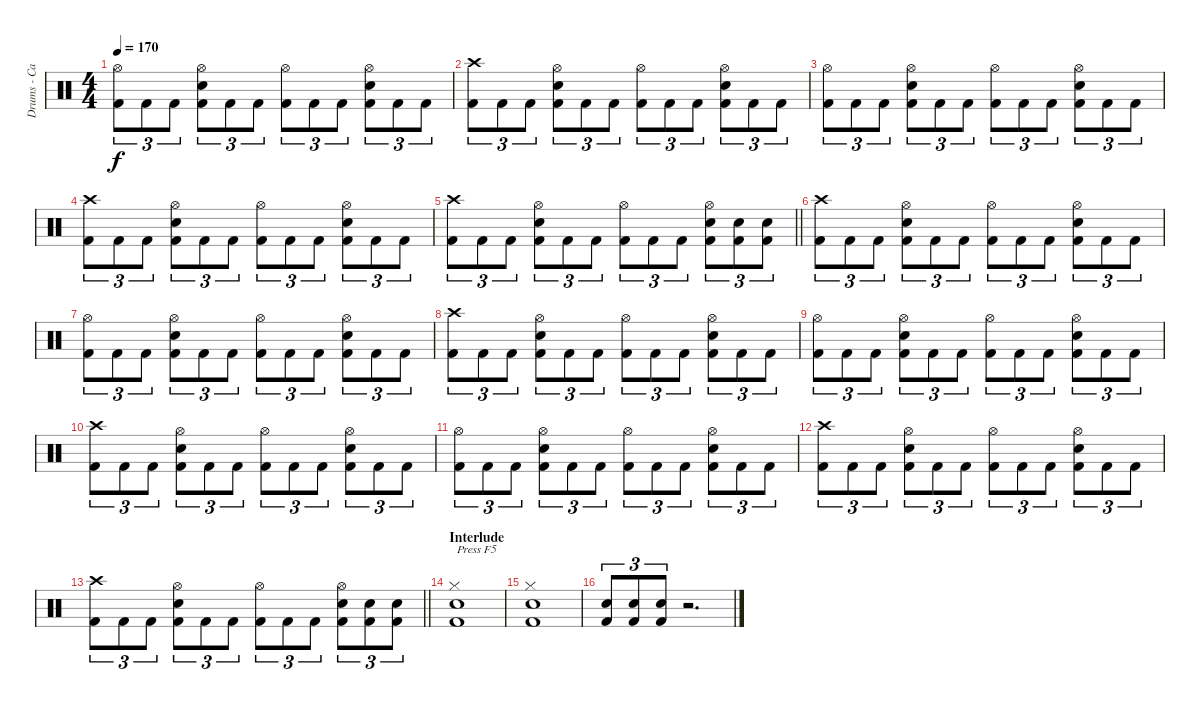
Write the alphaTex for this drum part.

\track ("Drums - Casey Grillo" "Drums - Ca") {instrument percussion}
\staff {score}
\articulation defaults
\ts (4 4)
\tempo 170
\clef neutral
\ks c
("Hi-Hat (open)" "Kick (hit) 2").8{tu (3 2) dy f} "Kick (hit) 2".8{tu (3 2)} "Kick (hit) 2".8{tu (3 2)} ("Hi-Hat (open)" "Snare (hit) 2" "Kick (hit) 2").8{tu (3 2)} "Kick (hit) 2".8{tu (3 2)} "Kick (hit) 2".8{tu (3 2)} ("Hi-Hat (open)" "Kick (hit) 2").8{tu (3 2)} "Kick (hit) 2".8{tu (3 2)} "Kick (hit) 2".8{tu (3 2)} ("Hi-Hat (open)" "Snare (hit) 2" "Kick (hit) 2").8{tu (3 2)} "Kick (hit) 2".8{tu (3 2)} "Kick (hit) 2".8{tu (3 2)} |
("Crash high (hit)" "Kick (hit) 2").8{tu (3 2)} "Kick (hit) 2".8{tu (3 2)} "Kick (hit) 2".8{tu (3 2)} ("Hi-Hat (open)" "Snare (hit) 2" "Kick (hit) 2").8{tu (3 2)} "Kick (hit) 2".8{tu (3 2)} "Kick (hit) 2".8{tu (3 2)} ("Hi-Hat (open)" "Kick (hit) 2").8{tu (3 2)} "Kick (hit) 2".8{tu (3 2)} "Kick (hit) 2".8{tu (3 2)} ("Hi-Hat (open)" "Snare (hit) 2" "Kick (hit) 2").8{tu (3 2)} "Kick (hit) 2".8{tu (3 2)} "Kick (hit) 2".8{tu (3 2)} |
("Hi-Hat (open)" "Kick (hit) 2").8{tu (3 2)} "Kick (hit) 2".8{tu (3 2)} "Kick (hit) 2".8{tu (3 2)} ("Hi-Hat (open)" "Snare (hit) 2" "Kick (hit) 2").8{tu (3 2)} "Kick (hit) 2".8{tu (3 2)} "Kick (hit) 2".8{tu (3 2)} ("Hi-Hat (open)" "Kick (hit) 2").8{tu (3 2)} "Kick (hit) 2".8{tu (3 2)} "Kick (hit) 2".8{tu (3 2)} ("Hi-Hat (open)" "Snare (hit) 2" "Kick (hit) 2").8{tu (3 2)} "Kick (hit) 2".8{tu (3 2)} "Kick (hit) 2".8{tu (3 2)} |
("Crash high (hit)" "Kick (hit) 2").8{tu (3 2)} "Kick (hit) 2".8{tu (3 2)} "Kick (hit) 2".8{tu (3 2)} ("Hi-Hat (open)" "Snare (hit) 2" "Kick (hit) 2").8{tu (3 2)} "Kick (hit) 2".8{tu (3 2)} "Kick (hit) 2".8{tu (3 2)} ("Hi-Hat (open)" "Kick (hit) 2").8{tu (3 2)} "Kick (hit) 2".8{tu (3 2)} "Kick (hit) 2".8{tu (3 2)} ("Hi-Hat (open)" "Snare (hit) 2" "Kick (hit) 2").8{tu (3 2)} "Kick (hit) 2".8{tu (3 2)} "Kick (hit) 2".8{tu (3 2)} |
\barLineRight lightlight
("Crash high (hit)" "Kick (hit) 2").8{tu (3 2)} "Kick (hit) 2".8{tu (3 2)} "Kick (hit) 2".8{tu (3 2)} ("Hi-Hat (open)" "Snare (hit) 2" "Kick (hit) 2").8{tu (3 2)} "Kick (hit) 2".8{tu (3 2)} "Kick (hit) 2".8{tu (3 2)} ("Hi-Hat (open)" "Kick (hit) 2").8{tu (3 2)} "Kick (hit) 2".8{tu (3 2)} "Kick (hit) 2".8{tu (3 2)} ("Hi-Hat (open)" "Snare (hit) 2" "Kick (hit) 2").8{tu (3 2)} ("Snare (hit) 2" "Kick (hit) 2").8{tu (3 2)} ("Snare (hit) 2" "Kick (hit) 2").8{tu (3 2)} |
("Crash high (hit)" "Kick (hit) 2").8{tu (3 2)} "Kick (hit) 2".8{tu (3 2)} "Kick (hit) 2".8{tu (3 2)} ("Hi-Hat (open)" "Snare (hit) 2" "Kick (hit) 2").8{tu (3 2)} "Kick (hit) 2".8{tu (3 2)} "Kick (hit) 2".8{tu (3 2)} ("Hi-Hat (open)" "Kick (hit) 2").8{tu (3 2)} "Kick (hit) 2".8{tu (3 2)} "Kick (hit) 2".8{tu (3 2)} ("Hi-Hat (open)" "Snare (hit) 2" "Kick (hit) 2").8{tu (3 2)} "Kick (hit) 2".8{tu (3 2)} "Kick (hit) 2".8{tu (3 2)} |
("Hi-Hat (open)" "Kick (hit) 2").8{tu (3 2)} "Kick (hit) 2".8{tu (3 2)} "Kick (hit) 2".8{tu (3 2)} ("Hi-Hat (open)" "Snare (hit) 2" "Kick (hit) 2").8{tu (3 2)} "Kick (hit) 2".8{tu (3 2)} "Kick (hit) 2".8{tu (3 2)} ("Hi-Hat (open)" "Kick (hit) 2").8{tu (3 2)} "Kick (hit) 2".8{tu (3 2)} "Kick (hit) 2".8{tu (3 2)} ("Hi-Hat (open)" "Snare (hit) 2" "Kick (hit) 2").8{tu (3 2)} "Kick (hit) 2".8{tu (3 2)} "Kick (hit) 2".8{tu (3 2)} |
("Crash high (hit)" "Kick (hit) 2").8{tu (3 2)} "Kick (hit) 2".8{tu (3 2)} "Kick (hit) 2".8{tu (3 2)} ("Hi-Hat (open)" "Snare (hit) 2" "Kick (hit) 2").8{tu (3 2)} "Kick (hit) 2".8{tu (3 2)} "Kick (hit) 2".8{tu (3 2)} ("Hi-Hat (open)" "Kick (hit) 2").8{tu (3 2)} "Kick (hit) 2".8{tu (3 2)} "Kick (hit) 2".8{tu (3 2)} ("Hi-Hat (open)" "Snare (hit) 2" "Kick (hit) 2").8{tu (3 2)} "Kick (hit) 2".8{tu (3 2)} "Kick (hit) 2".8{tu (3 2)} |
("Hi-Hat (open)" "Kick (hit) 2").8{tu (3 2)} "Kick (hit) 2".8{tu (3 2)} "Kick (hit) 2".8{tu (3 2)} ("Hi-Hat (open)" "Snare (hit) 2" "Kick (hit) 2").8{tu (3 2)} "Kick (hit) 2".8{tu (3 2)} "Kick (hit) 2".8{tu (3 2)} ("Hi-Hat (open)" "Kick (hit) 2").8{tu (3 2)} "Kick (hit) 2".8{tu (3 2)} "Kick (hit) 2".8{tu (3 2)} ("Hi-Hat (open)" "Snare (hit) 2" "Kick (hit) 2").8{tu (3 2)} "Kick (hit) 2".8{tu (3 2)} "Kick (hit) 2".8{tu (3 2)} |
("Crash high (hit)" "Kick (hit) 2").8{tu (3 2)} "Kick (hit) 2".8{tu (3 2)} "Kick (hit) 2".8{tu (3 2)} ("Hi-Hat (open)" "Snare (hit) 2" "Kick (hit) 2").8{tu (3 2)} "Kick (hit) 2".8{tu (3 2)} "Kick (hit) 2".8{tu (3 2)} ("Hi-Hat (open)" "Kick (hit) 2").8{tu (3 2)} "Kick (hit) 2".8{tu (3 2)} "Kick (hit) 2".8{tu (3 2)} ("Hi-Hat (open)" "Snare (hit) 2" "Kick (hit) 2").8{tu (3 2)} "Kick (hit) 2".8{tu (3 2)} "Kick (hit) 2".8{tu (3 2)} |
("Hi-Hat (open)" "Kick (hit) 2").8{tu (3 2)} "Kick (hit) 2".8{tu (3 2)} "Kick (hit) 2".8{tu (3 2)} ("Hi-Hat (open)" "Snare (hit) 2" "Kick (hit) 2").8{tu (3 2)} "Kick (hit) 2".8{tu (3 2)} "Kick (hit) 2".8{tu (3 2)} ("Hi-Hat (open)" "Kick (hit) 2").8{tu (3 2)} "Kick (hit) 2".8{tu (3 2)} "Kick (hit) 2".8{tu (3 2)} ("Hi-Hat (open)" "Snare (hit) 2" "Kick (hit) 2").8{tu (3 2)} "Kick (hit) 2".8{tu (3 2)} "Kick (hit) 2".8{tu (3 2)} |
("Crash high (hit)" "Kick (hit) 2").8{tu (3 2)} "Kick (hit) 2".8{tu (3 2)} "Kick (hit) 2".8{tu (3 2)} ("Hi-Hat (open)" "Snare (hit) 2" "Kick (hit) 2").8{tu (3 2)} "Kick (hit) 2".8{tu (3 2)} "Kick (hit) 2".8{tu (3 2)} ("Hi-Hat (open)" "Kick (hit) 2").8{tu (3 2)} "Kick (hit) 2".8{tu (3 2)} "Kick (hit) 2".8{tu (3 2)} ("Hi-Hat (open)" "Snare (hit) 2" "Kick (hit) 2").8{tu (3 2)} "Kick (hit) 2".8{tu (3 2)} "Kick (hit) 2".8{tu (3 2)} |
\barLineRight lightlight
("Crash high (hit)" "Kick (hit) 2").8{tu (3 2)} "Kick (hit) 2".8{tu (3 2)} "Kick (hit) 2".8{tu (3 2)} ("Hi-Hat (open)" "Snare (hit) 2" "Kick (hit) 2").8{tu (3 2)} "Kick (hit) 2".8{tu (3 2)} "Kick (hit) 2".8{tu (3 2)} ("Hi-Hat (open)" "Kick (hit) 2").8{tu (3 2)} "Kick (hit) 2".8{tu (3 2)} "Kick (hit) 2".8{tu (3 2)} ("Hi-Hat (open)" "Snare (hit) 2" "Kick (hit) 2").8{tu (3 2)} ("Snare (hit) 2" "Kick (hit) 2").8{tu (3 2)} ("Snare (hit) 2" "Kick (hit) 2").8{tu (3 2)} |
\section ("" "Interlude")
("Hi-Hat (closed)" "Snare (hit) 2" "Kick (hit) 2").1{txt "Press F5"} |
("Hi-Hat (closed)" "Snare (hit) 2" "Kick (hit) 2").1 |
("Snare (hit) 2" "Kick (hit) 2").8{tu (3 2)} ("Snare (hit) 2" "Kick (hit) 2").8{tu (3 2)} ("Snare (hit) 2" "Kick (hit) 2").8{tu (3 2)} r.2{d}
